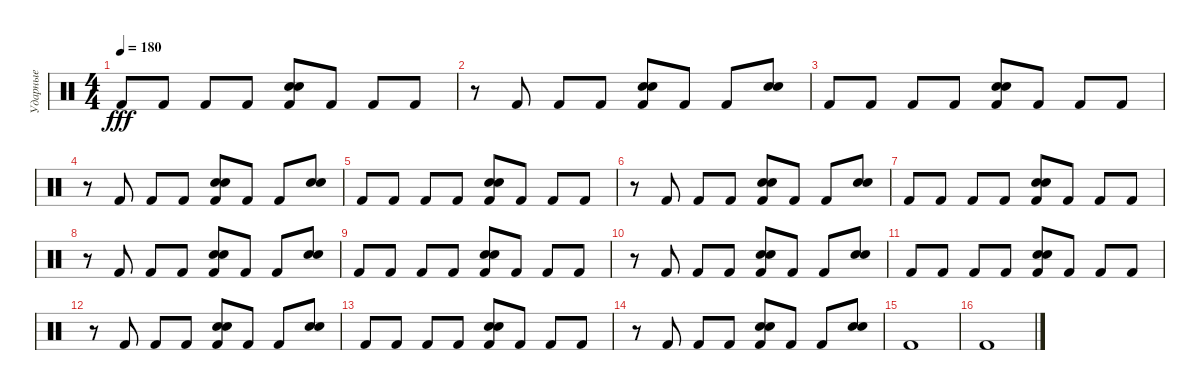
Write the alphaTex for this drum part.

\track ("Ударные" "Ударные") {instrument percussion}
\staff {score}
\articulation defaults
\ts (4 4)
\tempo 180
\clef neutral
\ks c "Kick (hit) 2".8{dy fff} "Kick (hit) 2".8 "Kick (hit) 2".8 "Kick (hit) 2".8
("Electric Snare (hit)" "Snare (hit) 2" "Kick (hit) 2").8 "Kick (hit) 2".8 "Kick (hit) 2".8 "Kick (hit) 2".8 |
r.8 "Kick (hit) 2".8 "Kick (hit) 2".8 "Kick (hit) 2".8 ("Electric Snare (hit)" "Snare (hit) 2" "Kick (hit) 2").8 "Kick (hit) 2".8 "Kick (hit) 2".8 ("Electric Snare (hit)" "Snare (hit) 2").8 |
"Kick (hit) 2".8 "Kick (hit) 2".8 "Kick (hit) 2".8 "Kick (hit) 2".8 ("Electric Snare (hit)" "Snare (hit) 2" "Kick (hit) 2").8 "Kick (hit) 2".8 "Kick (hit) 2".8 "Kick (hit) 2".8 |
r.8 "Kick (hit) 2".8 "Kick (hit) 2".8 "Kick (hit) 2".8 ("Electric Snare (hit)" "Snare (hit) 2" "Kick (hit) 2").8 "Kick (hit) 2".8 "Kick (hit) 2".8 ("Electric Snare (hit)" "Snare (hit) 2").8 |
"Kick (hit) 2".8 "Kick (hit) 2".8 "Kick (hit) 2".8 "Kick (hit) 2".8 ("Electric Snare (hit)" "Snare (hit) 2" "Kick (hit) 2").8 "Kick (hit) 2".8 "Kick (hit) 2".8 "Kick (hit) 2".8 |
r.8 "Kick (hit) 2".8 "Kick (hit) 2".8 "Kick (hit) 2".8 ("Electric Snare (hit)" "Snare (hit) 2" "Kick (hit) 2").8 "Kick (hit) 2".8 "Kick (hit) 2".8 ("Electric Snare (hit)" "Snare (hit) 2").8 |
"Kick (hit) 2".8 "Kick (hit) 2".8 "Kick (hit) 2".8 "Kick (hit) 2".8 ("Electric Snare (hit)" "Snare (hit) 2" "Kick (hit) 2").8 "Kick (hit) 2".8 "Kick (hit) 2".8 "Kick (hit) 2".8 |
r.8 "Kick (hit) 2".8 "Kick (hit) 2".8 "Kick (hit) 2".8 ("Electric Snare (hit)" "Snare (hit) 2" "Kick (hit) 2").8 "Kick (hit) 2".8 "Kick (hit) 2".8 ("Electric Snare (hit)" "Snare (hit) 2").8 |
"Kick (hit) 2".8 "Kick (hit) 2".8 "Kick (hit) 2".8 "Kick (hit) 2".8 ("Electric Snare (hit)" "Snare (hit) 2" "Kick (hit) 2").8 "Kick (hit) 2".8 "Kick (hit) 2".8 "Kick (hit) 2".8 |
r.8 "Kick (hit) 2".8 "Kick (hit) 2".8 "Kick (hit) 2".8 ("Electric Snare (hit)" "Snare (hit) 2" "Kick (hit) 2").8 "Kick (hit) 2".8 "Kick (hit) 2".8 ("Electric Snare (hit)" "Snare (hit) 2").8 |
"Kick (hit) 2".8 "Kick (hit) 2".8 "Kick (hit) 2".8 "Kick (hit) 2".8 ("Electric Snare (hit)" "Snare (hit) 2" "Kick (hit) 2").8 "Kick (hit) 2".8 "Kick (hit) 2".8 "Kick (hit) 2".8 |
r.8 "Kick (hit) 2".8 "Kick (hit) 2".8 "Kick (hit) 2".8 ("Electric Snare (hit)" "Snare (hit) 2" "Kick (hit) 2").8 "Kick (hit) 2".8 "Kick (hit) 2".8 ("Electric Snare (hit)" "Snare (hit) 2").8 |
"Kick (hit) 2".8 "Kick (hit) 2".8 "Kick (hit) 2".8 "Kick (hit) 2".8 ("Electric Snare (hit)" "Snare (hit) 2" "Kick (hit) 2").8 "Kick (hit) 2".8 "Kick (hit) 2".8 "Kick (hit) 2".8 |
r.8 "Kick (hit) 2".8 "Kick (hit) 2".8 "Kick (hit) 2".8 ("Electric Snare (hit)" "Snare (hit) 2" "Kick (hit) 2").8 "Kick (hit) 2".8 "Kick (hit) 2".8 ("Electric Snare (hit)" "Snare (hit) 2").8 |
"Kick (hit) 2".1 |
"Kick (hit) 2".1
